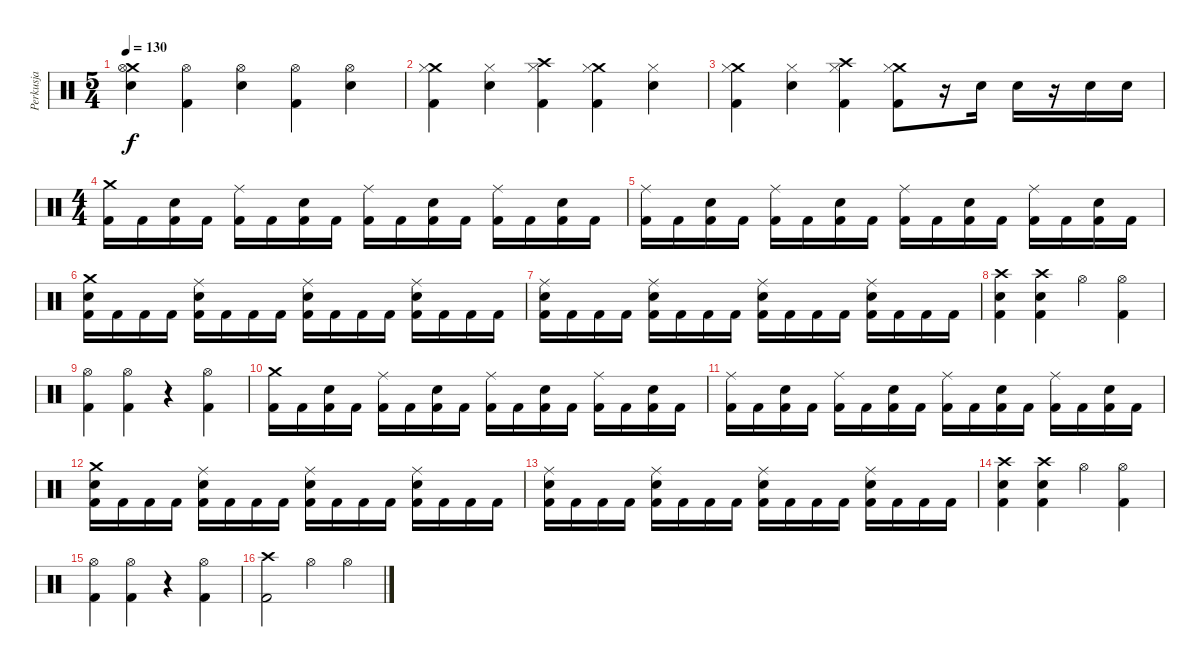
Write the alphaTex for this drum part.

\track ("Perkusja" "Perkusja") {instrument percussion}
\staff {score}
\articulation defaults
\ts (5 4)
\tempo 130
\clef neutral
\ks c
("Crash medium (hit)" "Hi-Hat (open)" "Electric Snare (hit)").4{dy f} ("Hi-Hat (open)" "Kick (hit) 2").4 ("Hi-Hat (open)" "Electric Snare (hit)").4 ("Hi-Hat (open)" "Kick (hit) 2").4 ("Hi-Hat (open)" "Electric Snare (hit)").4 |
("Crash medium (hit)" "Hi-Hat (closed)" "Kick (hit) 2").4 ("Hi-Hat (closed)" "Electric Snare (hit)").4 ("Crash high (hit)" "Hi-Hat (closed)" "Kick (hit) 2").4 ("Crash medium (hit)" "Hi-Hat (closed)" "Kick (hit) 2").4 ("Hi-Hat (closed)" "Electric Snare (hit)").4 |
("Crash medium (hit)" "Hi-Hat (closed)" "Kick (hit) 2").4 ("Hi-Hat (closed)" "Electric Snare (hit)").4 ("Crash high (hit)" "Hi-Hat (closed)" "Kick (hit) 2").4 ("Crash medium (hit)" "Hi-Hat (closed)" "Kick (hit) 2").8 r.16 "Electric Snare (hit)".16 "Electric Snare (hit)".16 r.16 "Electric Snare (hit)".16 "Electric Snare (hit)".16 |
\ts (4 4)
("Crash medium (hit)" "Kick (hit) 2").16 "Kick (hit) 2".16 ("Electric Snare (hit)" "Kick (hit) 2").16 "Kick (hit) 2".16 ("Ride (middle)" "Kick (hit) 2").16 "Kick (hit) 2".16 ("Electric Snare (hit)" "Kick (hit) 2").16 "Kick (hit) 2".16 ("Ride (middle)" "Kick (hit) 2").16 "Kick (hit) 2".16 ("Electric Snare (hit)" "Kick (hit) 2").16 "Kick (hit) 2".16 ("Ride (middle)" "Kick (hit) 2").16 "Kick (hit) 2".16 ("Electric Snare (hit)" "Kick (hit) 2").16 "Kick (hit) 2".16 |
("Ride (middle)" "Kick (hit) 2").16 "Kick (hit) 2".16 ("Electric Snare (hit)" "Kick (hit) 2").16 "Kick (hit) 2".16 ("Ride (middle)" "Kick (hit) 2").16 "Kick (hit) 2".16 ("Electric Snare (hit)" "Kick (hit) 2").16 "Kick (hit) 2".16 ("Ride (middle)" "Kick (hit) 2").16 "Kick (hit) 2".16 ("Electric Snare (hit)" "Kick (hit) 2").16 "Kick (hit) 2".16 ("Ride (middle)" "Kick (hit) 2").16 "Kick (hit) 2".16 ("Electric Snare (hit)" "Kick (hit) 2").16 "Kick (hit) 2".16 |
("Crash medium (hit)" "Electric Snare (hit)" "Kick (hit) 2").16 "Kick (hit) 2".16 "Kick (hit) 2".16 "Kick (hit) 2".16 ("Ride (middle)" "Electric Snare (hit)" "Kick (hit) 2").16 "Kick (hit) 2".16 "Kick (hit) 2".16 "Kick (hit) 2".16 ("Ride (middle)" "Electric Snare (hit)" "Kick (hit) 2").16 "Kick (hit) 2".16 "Kick (hit) 2".16 "Kick (hit) 2".16 ("Ride (middle)" "Electric Snare (hit)" "Kick (hit) 2").16 "Kick (hit) 2".16 "Kick (hit) 2".16 "Kick (hit) 2".16 |
("Ride (middle)" "Electric Snare (hit)" "Kick (hit) 2").16 "Kick (hit) 2".16 "Kick (hit) 2".16 "Kick (hit) 2".16 ("Ride (middle)" "Electric Snare (hit)" "Kick (hit) 2").16 "Kick (hit) 2".16 "Kick (hit) 2".16 "Kick (hit) 2".16 ("Ride (middle)" "Electric Snare (hit)" "Kick (hit) 2").16 "Kick (hit) 2".16 "Kick (hit) 2".16 "Kick (hit) 2".16 ("Ride (middle)" "Electric Snare (hit)" "Kick (hit) 2").16 "Kick (hit) 2".16 "Kick (hit) 2".16 "Kick (hit) 2".16 |
("Crash high (hit)" "Electric Snare (hit)" "Kick (hit) 2").4 ("Crash high (hit)" "Electric Snare (hit)" "Kick (hit) 2").4 "Hi-Hat (open)".4 ("Hi-Hat (open)" "Kick (hit) 2").4 |
("Hi-Hat (open)" "Kick (hit) 2").4 ("Hi-Hat (open)" "Kick (hit) 2").4 r.4 ("Hi-Hat (open)" "Kick (hit) 2").4 |
("Crash medium (hit)" "Kick (hit) 2").16 "Kick (hit) 2".16 ("Electric Snare (hit)" "Kick (hit) 2").16 "Kick (hit) 2".16 ("Ride (middle)" "Kick (hit) 2").16 "Kick (hit) 2".16 ("Electric Snare (hit)" "Kick (hit) 2").16 "Kick (hit) 2".16 ("Ride (middle)" "Kick (hit) 2").16 "Kick (hit) 2".16 ("Electric Snare (hit)" "Kick (hit) 2").16 "Kick (hit) 2".16 ("Ride (middle)" "Kick (hit) 2").16 "Kick (hit) 2".16 ("Electric Snare (hit)" "Kick (hit) 2").16 "Kick (hit) 2".16 |
("Ride (middle)" "Kick (hit) 2").16 "Kick (hit) 2".16 ("Electric Snare (hit)" "Kick (hit) 2").16 "Kick (hit) 2".16 ("Ride (middle)" "Kick (hit) 2").16 "Kick (hit) 2".16 ("Electric Snare (hit)" "Kick (hit) 2").16 "Kick (hit) 2".16 ("Ride (middle)" "Kick (hit) 2").16 "Kick (hit) 2".16 ("Electric Snare (hit)" "Kick (hit) 2").16 "Kick (hit) 2".16 ("Ride (middle)" "Kick (hit) 2").16 "Kick (hit) 2".16 ("Electric Snare (hit)" "Kick (hit) 2").16 "Kick (hit) 2".16 |
("Crash medium (hit)" "Electric Snare (hit)" "Kick (hit) 2").16 "Kick (hit) 2".16 "Kick (hit) 2".16 "Kick (hit) 2".16 ("Ride (middle)" "Electric Snare (hit)" "Kick (hit) 2").16 "Kick (hit) 2".16 "Kick (hit) 2".16 "Kick (hit) 2".16 ("Ride (middle)" "Electric Snare (hit)" "Kick (hit) 2").16 "Kick (hit) 2".16 "Kick (hit) 2".16 "Kick (hit) 2".16 ("Ride (middle)" "Electric Snare (hit)" "Kick (hit) 2").16 "Kick (hit) 2".16 "Kick (hit) 2".16 "Kick (hit) 2".16 |
("Ride (middle)" "Electric Snare (hit)" "Kick (hit) 2").16 "Kick (hit) 2".16 "Kick (hit) 2".16 "Kick (hit) 2".16 ("Ride (middle)" "Electric Snare (hit)" "Kick (hit) 2").16 "Kick (hit) 2".16 "Kick (hit) 2".16 "Kick (hit) 2".16 ("Ride (middle)" "Electric Snare (hit)" "Kick (hit) 2").16 "Kick (hit) 2".16 "Kick (hit) 2".16 "Kick (hit) 2".16 ("Ride (middle)" "Electric Snare (hit)" "Kick (hit) 2").16 "Kick (hit) 2".16 "Kick (hit) 2".16 "Kick (hit) 2".16 |
("Crash high (hit)" "Electric Snare (hit)" "Kick (hit) 2").4 ("Crash high (hit)" "Electric Snare (hit)" "Kick (hit) 2").4 "Hi-Hat (open)".4 ("Hi-Hat (open)" "Kick (hit) 2").4 |
("Hi-Hat (open)" "Kick (hit) 2").4 ("Hi-Hat (open)" "Kick (hit) 2").4 r.4 ("Hi-Hat (open)" "Kick (hit) 2").4 |
("Crash high (hit)" "Kick (hit) 2").2 "Hi-Hat (open)".4 "Hi-Hat (open)".4
